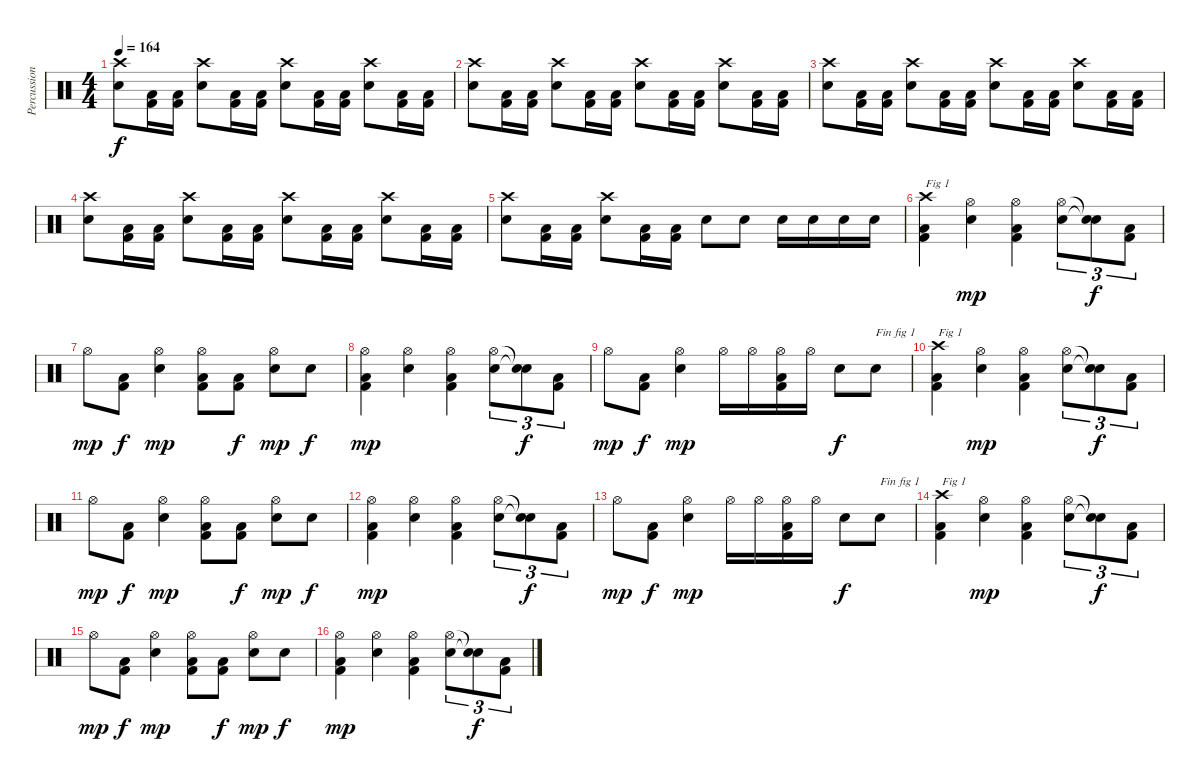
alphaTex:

\track ("Percussions" "Percussion") {instrument percussion}
\staff {score}
\articulation defaults
\ts (4 4)
\tempo 164
\clef neutral
\ks c
("Electric Snare (hit)" "Crash high (hit)").8{dy f} ("Kick (hit) 2" "Low Floor Tom (hit)").16 ("Kick (hit) 2" "Low Floor Tom (hit)").16 ("Electric Snare (hit)" "Crash high (hit)").8 ("Kick (hit) 2" "Low Floor Tom (hit)").16 ("Kick (hit) 2" "Low Floor Tom (hit)").16 ("Electric Snare (hit)" "Crash high (hit)").8 ("Kick (hit) 2" "Low Floor Tom (hit)").16 ("Kick (hit) 2" "Low Floor Tom (hit)").16 ("Electric Snare (hit)" "Crash high (hit)").8 ("Kick (hit) 2" "Low Floor Tom (hit)").16 ("Kick (hit) 2" "Low Floor Tom (hit)").16 |
("Electric Snare (hit)" "Crash high (hit)").8 ("Kick (hit) 2" "Low Floor Tom (hit)").16 ("Kick (hit) 2" "Low Floor Tom (hit)").16 ("Electric Snare (hit)" "Crash high (hit)").8 ("Kick (hit) 2" "Low Floor Tom (hit)").16 ("Kick (hit) 2" "Low Floor Tom (hit)").16 ("Electric Snare (hit)" "Crash high (hit)").8 ("Kick (hit) 2" "Low Floor Tom (hit)").16 ("Kick (hit) 2" "Low Floor Tom (hit)").16 ("Electric Snare (hit)" "Crash high (hit)").8 ("Kick (hit) 2" "Low Floor Tom (hit)").16 ("Kick (hit) 2" "Low Floor Tom (hit)").16 |
("Electric Snare (hit)" "Crash high (hit)").8 ("Kick (hit) 2" "Low Floor Tom (hit)").16 ("Kick (hit) 2" "Low Floor Tom (hit)").16 ("Electric Snare (hit)" "Crash high (hit)").8 ("Kick (hit) 2" "Low Floor Tom (hit)").16 ("Kick (hit) 2" "Low Floor Tom (hit)").16 ("Electric Snare (hit)" "Crash high (hit)").8 ("Kick (hit) 2" "Low Floor Tom (hit)").16 ("Kick (hit) 2" "Low Floor Tom (hit)").16 ("Electric Snare (hit)" "Crash high (hit)").8 ("Kick (hit) 2" "Low Floor Tom (hit)").16 ("Kick (hit) 2" "Low Floor Tom (hit)").16 |
("Electric Snare (hit)" "Crash high (hit)").8 ("Kick (hit) 2" "Low Floor Tom (hit)").16 ("Kick (hit) 2" "Low Floor Tom (hit)").16 ("Electric Snare (hit)" "Crash high (hit)").8 ("Kick (hit) 2" "Low Floor Tom (hit)").16 ("Kick (hit) 2" "Low Floor Tom (hit)").16 ("Electric Snare (hit)" "Crash high (hit)").8 ("Kick (hit) 2" "Low Floor Tom (hit)").16 ("Kick (hit) 2" "Low Floor Tom (hit)").16 ("Electric Snare (hit)" "Crash high (hit)").8 ("Kick (hit) 2" "Low Floor Tom (hit)").16 ("Kick (hit) 2" "Low Floor Tom (hit)").16 |
("Electric Snare (hit)" "Crash high (hit)").8 ("Kick (hit) 2" "Low Floor Tom (hit)").16 ("Kick (hit) 2" "Low Floor Tom (hit)").16 ("Electric Snare (hit)" "Crash high (hit)").8 ("Kick (hit) 2" "Low Floor Tom (hit)").16 ("Kick (hit) 2" "Low Floor Tom (hit)").16 "Electric Snare (hit)".8 "Electric Snare (hit)".8 "Electric Snare (hit)".16 "Electric Snare (hit)".16 "Electric Snare (hit)".16 "Electric Snare (hit)".16 |
("Kick (hit) 2" "Low Floor Tom (hit)" "Crash high (hit)").4{txt "Fig 1"} ("Electric Snare (hit)" "Hi-Hat (open)").4{dy mp} ("Kick (hit) 2" "Low Floor Tom (hit)" "Hi-Hat (open)").4 ("Electric Snare (hit)" "Hi-Hat (open)").8{tu (3 2)} ("Snare (hit)"{t} "Snare (hit)"{t}).8{tu (3 2) dy f} ("Kick (hit) 2" "Low Floor Tom (hit)").8{tu (3 2)} |
"Hi-Hat (open)".8{dy mp} ("Kick (hit) 2" "Low Floor Tom (hit)").8{dy f} ("Electric Snare (hit)" "Hi-Hat (open)").4{dy mp} ("Kick (hit) 2" "Low Floor Tom (hit)" "Hi-Hat (open)").8 ("Kick (hit) 2" "Low Floor Tom (hit)").8{dy f} ("Electric Snare (hit)" "Hi-Hat (open)").8{dy mp} "Electric Snare (hit)".8{dy f} |
("Kick (hit) 2" "Low Floor Tom (hit)" "Hi-Hat (open)").4{dy mp} ("Electric Snare (hit)" "Hi-Hat (open)").4 ("Kick (hit) 2" "Low Floor Tom (hit)" "Hi-Hat (open)").4 ("Electric Snare (hit)" "Hi-Hat (open)").8{tu (3 2)} ("Snare (hit)"{t} "Snare (hit)"{t}).8{tu (3 2) dy f} ("Kick (hit) 2" "Low Floor Tom (hit)").8{tu (3 2)} |
"Hi-Hat (open)".8{dy mp} ("Kick (hit) 2" "Low Floor Tom (hit)").8{dy f} ("Electric Snare (hit)" "Hi-Hat (open)").4{dy mp} "Hi-Hat (open)".16 "Hi-Hat (open)".16 ("Kick (hit) 2" "Low Floor Tom (hit)" "Hi-Hat (open)").16 "Hi-Hat (open)".16 "Electric Snare (hit)".8{dy f} "Electric Snare (hit)".8{txt "Fin fig 1"} |
("Kick (hit) 2" "Low Floor Tom (hit)" "Crash high (hit)").4{txt "Fig 1"} ("Electric Snare (hit)" "Hi-Hat (open)").4{dy mp} ("Kick (hit) 2" "Low Floor Tom (hit)" "Hi-Hat (open)").4 ("Electric Snare (hit)" "Hi-Hat (open)").8{tu (3 2)} ("Snare (hit)"{t} "Snare (hit)"{t}).8{tu (3 2) dy f} ("Kick (hit) 2" "Low Floor Tom (hit)").8{tu (3 2)} |
"Hi-Hat (open)".8{dy mp} ("Kick (hit) 2" "Low Floor Tom (hit)").8{dy f} ("Electric Snare (hit)" "Hi-Hat (open)").4{dy mp} ("Kick (hit) 2" "Low Floor Tom (hit)" "Hi-Hat (open)").8 ("Kick (hit) 2" "Low Floor Tom (hit)").8{dy f} ("Electric Snare (hit)" "Hi-Hat (open)").8{dy mp} "Electric Snare (hit)".8{dy f} |
("Kick (hit) 2" "Low Floor Tom (hit)" "Hi-Hat (open)").4{dy mp} ("Electric Snare (hit)" "Hi-Hat (open)").4 ("Kick (hit) 2" "Low Floor Tom (hit)" "Hi-Hat (open)").4 ("Electric Snare (hit)" "Hi-Hat (open)").8{tu (3 2)} ("Snare (hit)"{t} "Snare (hit)"{t}).8{tu (3 2) dy f} ("Kick (hit) 2" "Low Floor Tom (hit)").8{tu (3 2)} |
"Hi-Hat (open)".8{dy mp} ("Kick (hit) 2" "Low Floor Tom (hit)").8{dy f} ("Electric Snare (hit)" "Hi-Hat (open)").4{dy mp} "Hi-Hat (open)".16 "Hi-Hat (open)".16 ("Kick (hit) 2" "Low Floor Tom (hit)" "Hi-Hat (open)").16 "Hi-Hat (open)".16 "Electric Snare (hit)".8{dy f} "Electric Snare (hit)".8{txt "Fin fig 1"} |
("Kick (hit) 2" "Low Floor Tom (hit)" "Crash high (hit)").4{txt "Fig 1"} ("Electric Snare (hit)" "Hi-Hat (open)").4{dy mp} ("Kick (hit) 2" "Low Floor Tom (hit)" "Hi-Hat (open)").4 ("Electric Snare (hit)" "Hi-Hat (open)").8{tu (3 2)} ("Snare (hit)"{t} "Snare (hit)"{t}).8{tu (3 2) dy f} ("Kick (hit) 2" "Low Floor Tom (hit)").8{tu (3 2)} |
"Hi-Hat (open)".8{dy mp} ("Kick (hit) 2" "Low Floor Tom (hit)").8{dy f} ("Electric Snare (hit)" "Hi-Hat (open)").4{dy mp} ("Kick (hit) 2" "Low Floor Tom (hit)" "Hi-Hat (open)").8 ("Kick (hit) 2" "Low Floor Tom (hit)").8{dy f} ("Electric Snare (hit)" "Hi-Hat (open)").8{dy mp} "Electric Snare (hit)".8{dy f} |
("Kick (hit) 2" "Low Floor Tom (hit)" "Hi-Hat (open)").4{dy mp} ("Electric Snare (hit)" "Hi-Hat (open)").4 ("Kick (hit) 2" "Low Floor Tom (hit)" "Hi-Hat (open)").4 ("Electric Snare (hit)" "Hi-Hat (open)").8{tu (3 2)} ("Snare (hit)"{t} "Snare (hit)"{t}).8{tu (3 2) dy f} ("Kick (hit) 2" "Low Floor Tom (hit)").8{tu (3 2)}
